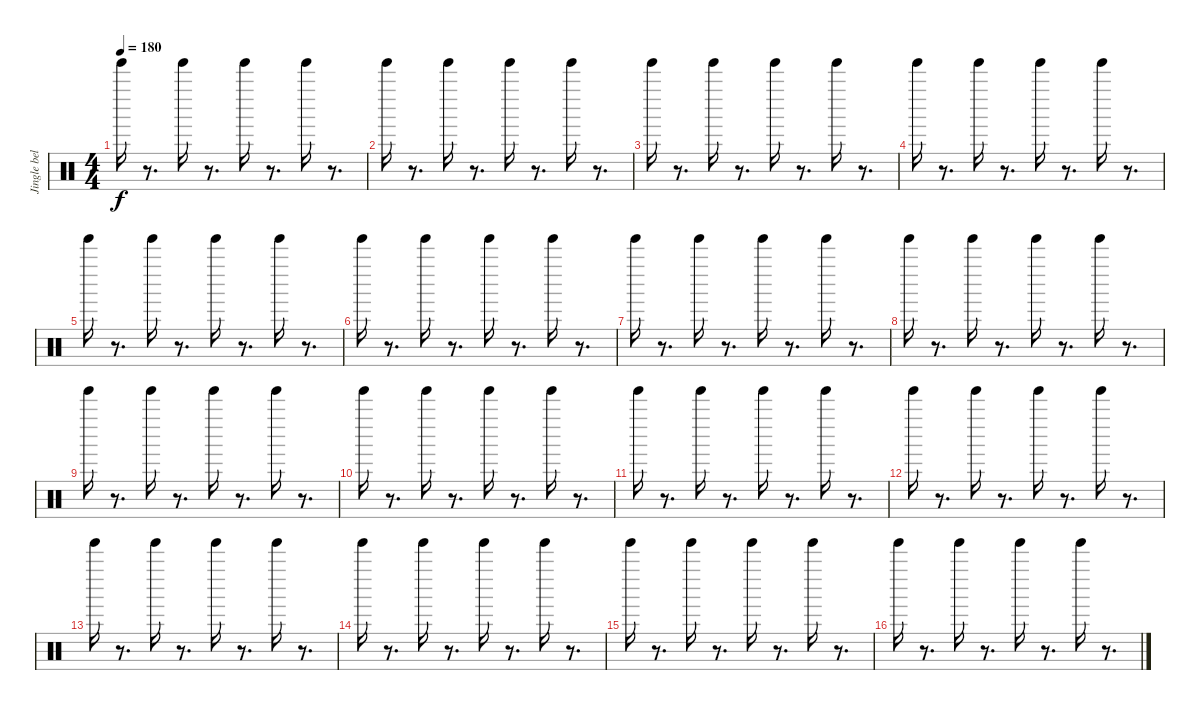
\track ("Jingle bell" "Jingle bel") {instrument percussion}
\staff {score}
\articulation defaults
\ts (4 4)
\tempo 180
\clef neutral
\ks c "Tinkle Bell (hit)".16{dy f}
r.8{d} "Tinkle Bell (hit)".16 r.8{d} "Tinkle Bell (hit)".16 r.8{d} "Tinkle Bell (hit)".16 r.8{d} |
"Tinkle Bell (hit)".16 r.8{d} "Tinkle Bell (hit)".16 r.8{d} "Tinkle Bell (hit)".16 r.8{d} "Tinkle Bell (hit)".16 r.8{d} |
"Tinkle Bell (hit)".16 r.8{d} "Tinkle Bell (hit)".16 r.8{d} "Tinkle Bell (hit)".16 r.8{d} "Tinkle Bell (hit)".16 r.8{d} |
"Tinkle Bell (hit)".16 r.8{d} "Tinkle Bell (hit)".16 r.8{d} "Tinkle Bell (hit)".16 r.8{d} "Tinkle Bell (hit)".16 r.8{d} |
"Tinkle Bell (hit)".16 r.8{d} "Tinkle Bell (hit)".16 r.8{d} "Tinkle Bell (hit)".16 r.8{d} "Tinkle Bell (hit)".16 r.8{d} |
"Tinkle Bell (hit)".16 r.8{d} "Tinkle Bell (hit)".16 r.8{d} "Tinkle Bell (hit)".16 r.8{d} "Tinkle Bell (hit)".16 r.8{d} |
"Tinkle Bell (hit)".16 r.8{d} "Tinkle Bell (hit)".16 r.8{d} "Tinkle Bell (hit)".16 r.8{d} "Tinkle Bell (hit)".16 r.8{d} |
"Tinkle Bell (hit)".16 r.8{d} "Tinkle Bell (hit)".16 r.8{d} "Tinkle Bell (hit)".16 r.8{d} "Tinkle Bell (hit)".16 r.8{d} |
"Tinkle Bell (hit)".16 r.8{d} "Tinkle Bell (hit)".16 r.8{d} "Tinkle Bell (hit)".16 r.8{d} "Tinkle Bell (hit)".16 r.8{d} |
"Tinkle Bell (hit)".16 r.8{d} "Tinkle Bell (hit)".16 r.8{d} "Tinkle Bell (hit)".16 r.8{d} "Tinkle Bell (hit)".16 r.8{d} |
"Tinkle Bell (hit)".16 r.8{d} "Tinkle Bell (hit)".16 r.8{d} "Tinkle Bell (hit)".16 r.8{d} "Tinkle Bell (hit)".16 r.8{d} |
"Tinkle Bell (hit)".16 r.8{d} "Tinkle Bell (hit)".16 r.8{d} "Tinkle Bell (hit)".16 r.8{d} "Tinkle Bell (hit)".16 r.8{d} |
"Tinkle Bell (hit)".16 r.8{d} "Tinkle Bell (hit)".16 r.8{d} "Tinkle Bell (hit)".16 r.8{d} "Tinkle Bell (hit)".16 r.8{d} |
"Tinkle Bell (hit)".16 r.8{d} "Tinkle Bell (hit)".16 r.8{d} "Tinkle Bell (hit)".16 r.8{d} "Tinkle Bell (hit)".16 r.8{d} |
"Tinkle Bell (hit)".16 r.8{d} "Tinkle Bell (hit)".16 r.8{d} "Tinkle Bell (hit)".16 r.8{d} "Tinkle Bell (hit)".16 r.8{d} |
"Tinkle Bell (hit)".16 r.8{d} "Tinkle Bell (hit)".16 r.8{d} "Tinkle Bell (hit)".16 r.8{d} "Tinkle Bell (hit)".16 r.8{d}
